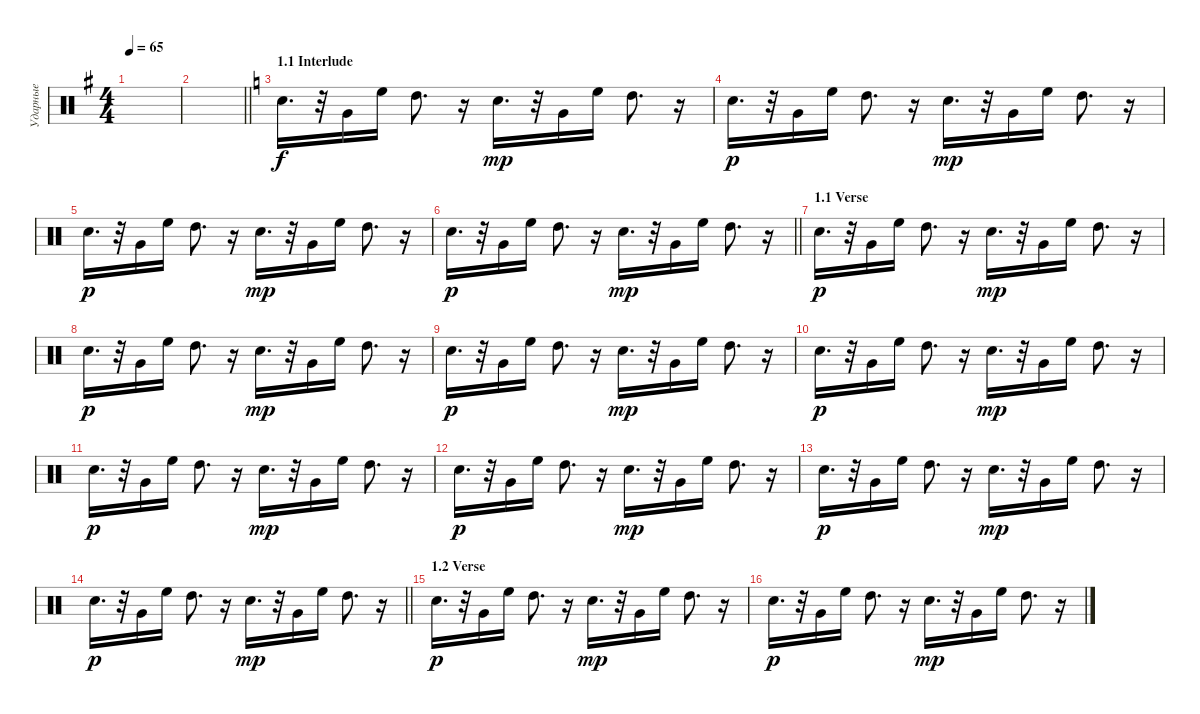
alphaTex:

\track ("Ударные" "Ударные") {instrument percussion}
\staff {score}
\articulation defaults
\ts (4 4)
\tempo 65
\clef neutral
\ks eminor
|
\barLineRight lightlight
|
\section ("" "1.1 Interlude")
\ks c "Electric Snare (hit)".16{d}
r.32 "Very Low Tom (hit)".16 "High Floor Tom (hit)".16 "High Tom (hit)".8{d} r.16 "Electric Snare (hit)".16{d dy mp} r.32 "Very Low Tom (hit)".16 "High Floor Tom (hit)".16 "High Tom (hit)".8{d} r.16 |
"Electric Snare (hit)".16{d dy p} r.32 "Very Low Tom (hit)".16 "High Floor Tom (hit)".16 "High Tom (hit)".8{d} r.16 "Electric Snare (hit)".16{d dy mp} r.32 "Very Low Tom (hit)".16 "High Floor Tom (hit)".16 "High Tom (hit)".8{d} r.16 |
"Electric Snare (hit)".16{d dy p} r.32 "Very Low Tom (hit)".16 "High Floor Tom (hit)".16 "High Tom (hit)".8{d} r.16 "Electric Snare (hit)".16{d dy mp} r.32 "Very Low Tom (hit)".16 "High Floor Tom (hit)".16 "High Tom (hit)".8{d} r.16 |
\barLineRight lightlight "Electric Snare (hit)".16{d dy p}
r.32 "Very Low Tom (hit)".16 "High Floor Tom (hit)".16 "High Tom (hit)".8{d} r.16 "Electric Snare (hit)".16{d dy mp} r.32 "Very Low Tom (hit)".16 "High Floor Tom (hit)".16 "High Tom (hit)".8{d} r.16 |
\section ("" "1.1 Verse")
"Electric Snare (hit)".16{d dy p} r.32 "Very Low Tom (hit)".16 "High Floor Tom (hit)".16 "High Tom (hit)".8{d} r.16 "Electric Snare (hit)".16{d dy mp} r.32 "Very Low Tom (hit)".16 "High Floor Tom (hit)".16 "High Tom (hit)".8{d} r.16 |
"Electric Snare (hit)".16{d dy p} r.32 "Very Low Tom (hit)".16 "High Floor Tom (hit)".16 "High Tom (hit)".8{d} r.16 "Electric Snare (hit)".16{d dy mp} r.32 "Very Low Tom (hit)".16 "High Floor Tom (hit)".16 "High Tom (hit)".8{d} r.16 |
"Electric Snare (hit)".16{d dy p} r.32 "Very Low Tom (hit)".16 "High Floor Tom (hit)".16 "High Tom (hit)".8{d} r.16 "Electric Snare (hit)".16{d dy mp} r.32 "Very Low Tom (hit)".16 "High Floor Tom (hit)".16 "High Tom (hit)".8{d} r.16 |
"Electric Snare (hit)".16{d dy p} r.32 "Very Low Tom (hit)".16 "High Floor Tom (hit)".16 "High Tom (hit)".8{d} r.16 "Electric Snare (hit)".16{d dy mp} r.32 "Very Low Tom (hit)".16 "High Floor Tom (hit)".16 "High Tom (hit)".8{d} r.16 |
"Electric Snare (hit)".16{d dy p} r.32 "Very Low Tom (hit)".16 "High Floor Tom (hit)".16 "High Tom (hit)".8{d} r.16 "Electric Snare (hit)".16{d dy mp} r.32 "Very Low Tom (hit)".16 "High Floor Tom (hit)".16 "High Tom (hit)".8{d} r.16 |
"Electric Snare (hit)".16{d dy p} r.32 "Very Low Tom (hit)".16 "High Floor Tom (hit)".16 "High Tom (hit)".8{d} r.16 "Electric Snare (hit)".16{d dy mp} r.32 "Very Low Tom (hit)".16 "High Floor Tom (hit)".16 "High Tom (hit)".8{d} r.16 |
"Electric Snare (hit)".16{d dy p} r.32 "Very Low Tom (hit)".16 "High Floor Tom (hit)".16 "High Tom (hit)".8{d} r.16 "Electric Snare (hit)".16{d dy mp} r.32 "Very Low Tom (hit)".16 "High Floor Tom (hit)".16 "High Tom (hit)".8{d} r.16 |
\barLineRight lightlight "Electric Snare (hit)".16{d dy p}
r.32 "Very Low Tom (hit)".16 "High Floor Tom (hit)".16 "High Tom (hit)".8{d} r.16 "Electric Snare (hit)".16{d dy mp} r.32 "Very Low Tom (hit)".16 "High Floor Tom (hit)".16 "High Tom (hit)".8{d} r.16 |
\section ("" "1.2 Verse")
"Electric Snare (hit)".16{d dy p} r.32 "Very Low Tom (hit)".16 "High Floor Tom (hit)".16 "High Tom (hit)".8{d} r.16 "Electric Snare (hit)".16{d dy mp} r.32 "Very Low Tom (hit)".16 "High Floor Tom (hit)".16 "High Tom (hit)".8{d} r.16 |
"Electric Snare (hit)".16{d dy p} r.32 "Very Low Tom (hit)".16 "High Floor Tom (hit)".16 "High Tom (hit)".8{d} r.16 "Electric Snare (hit)".16{d dy mp} r.32 "Very Low Tom (hit)".16 "High Floor Tom (hit)".16 "High Tom (hit)".8{d} r.16
